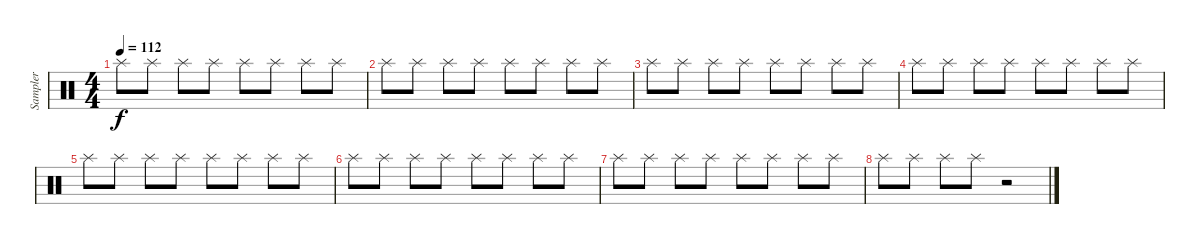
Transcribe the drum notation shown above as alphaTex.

\track ("Sampler" "Sampler") {instrument percussion}
\staff {score}
\articulation defaults
\ts (4 4)
\tempo 112
\clef neutral
\ks c "Splash (hit)".8{dy f} "Splash (hit)".8 "Splash (hit)".8 "Splash (hit)".8 "Splash (hit)".8 "Splash (hit)".8 "Splash (hit)".8 "Splash (hit)".8
|
"Splash (hit)".8 "Splash (hit)".8 "Splash (hit)".8 "Splash (hit)".8 "Splash (hit)".8 "Splash (hit)".8 "Splash (hit)".8 "Splash (hit)".8 |
"Splash (hit)".8 "Splash (hit)".8 "Splash (hit)".8 "Splash (hit)".8 "Splash (hit)".8 "Splash (hit)".8 "Splash (hit)".8 "Splash (hit)".8 |
"Splash (hit)".8 "Splash (hit)".8 "Splash (hit)".8 "Splash (hit)".8 "Splash (hit)".8 "Splash (hit)".8 "Splash (hit)".8 "Splash (hit)".8 |
"Splash (hit)".8 "Splash (hit)".8 "Splash (hit)".8 "Splash (hit)".8 "Splash (hit)".8 "Splash (hit)".8 "Splash (hit)".8 "Splash (hit)".8 |
"Splash (hit)".8 "Splash (hit)".8 "Splash (hit)".8 "Splash (hit)".8 "Splash (hit)".8 "Splash (hit)".8 "Splash (hit)".8 "Splash (hit)".8 |
"Splash (hit)".8 "Splash (hit)".8 "Splash (hit)".8 "Splash (hit)".8 "Splash (hit)".8 "Splash (hit)".8 "Splash (hit)".8 "Splash (hit)".8 |
"Splash (hit)".8 "Splash (hit)".8 "Splash (hit)".8 "Splash (hit)".8 r.2
